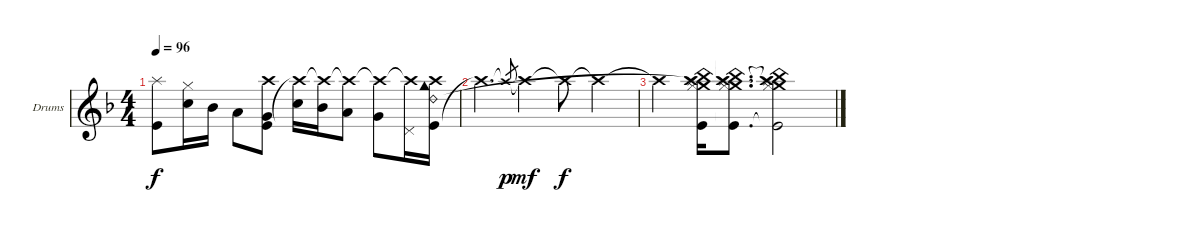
\defaultSystemsLayout 4
\bracketExtendMode groupsimilarinstruments
\firstSystemTrackNameOrientation horizontal
\otherSystemsTrackNameOrientation horizontal
\track ("Drumkit" "Drums") {instrument percussion}
\staff {score}
\articulation defaults
\ts (4 4)
\tempo 96
\clef g2
\ks dminor
("Kick (hit)" "Splash (hit)").8{dy f} ("Hi-Hat (closed)" "Snare (hit) 2").16 "Mid Tom (hit)".16 "Low Tom (hit)".8 ("Very Low Tom (hit)" "Kick (hit)" "Crash high (hit)").8 ("Snare (hit) 2" "Crash high (hit)"{t}).16 ("Mid Tom (hit)" "Crash high (hit)"{t}).16 ("Low Tom (hit)" "Crash high (hit)"{t}).8 ("Very Low Tom (hit)" "Crash high (hit)"{t}).8 ("Pedal Hi-Hat (hit)" "Crash high (hit)"{t}).16 ("Kick (hit)" "Cowbell high (hit)" "Ride (bell) 2" "Crash high (hit)").16 |
"Crash high (hit)"{t}.4{d} "Crash high (hit)"{t}.8{gr dy p} "Crash high (hit)"{t}.4{dy mf} "Crash high (hit)"{t}.8{dy f} "Crash high (hit)"{t}.4 |
"Crash high (hit)"{t}.4 ("Kick (hit)" "China (hit)" "Crash high (hit)"{t} "Crash medium (hit)" "Splash (hit)" "Hi-Hat (closed)").16 ("Kick (hit)"{t} "China (hit)"{t} "Crash high (hit)"{t} "Crash medium (hit)" "Splash (hit)" "Hi-Hat (closed)").8{d} ("Kick (hit)"{t} "Crash high (hit)"{t} "China (hit)"{t} "Crash medium (hit)" "Splash (hit)" "Hi-Hat (closed)").2
